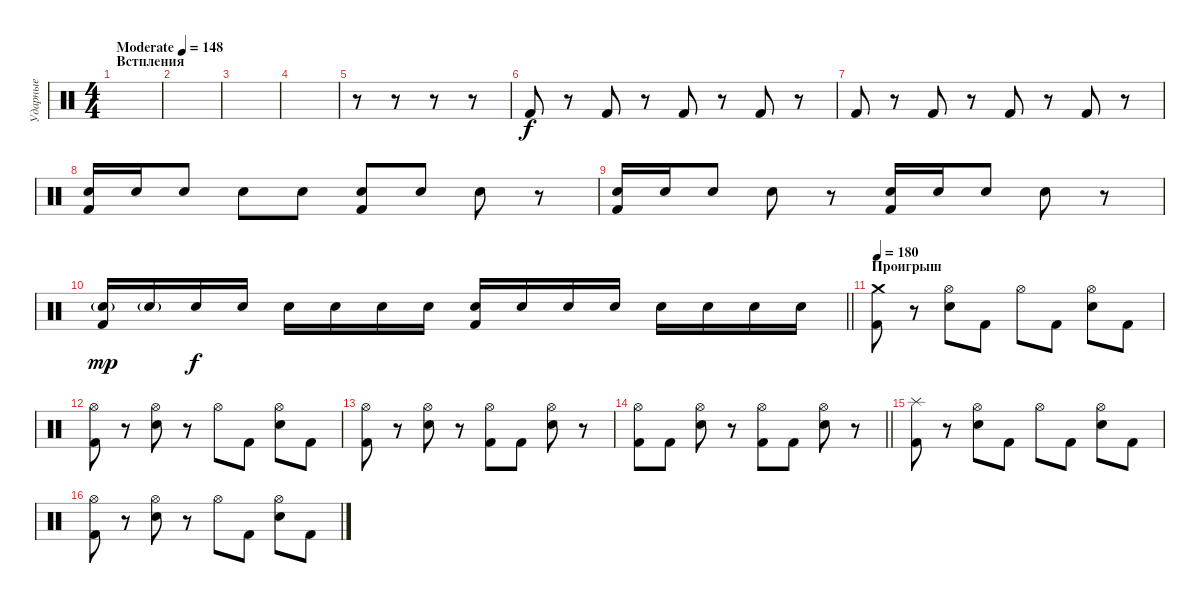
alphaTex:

\track ("Ударные" "Ударные") {instrument percussion}
\staff {score}
\articulation defaults
\ts (4 4)
\section ("" "Встпления")
\tempo (148 "Moderate")
\clef neutral
\ks c
|
|
|
|
r.8 r.8 r.8 r.8 |
"Kick (hit) 2".8 r.8 "Kick (hit) 2".8 r.8 "Kick (hit) 2".8 r.8 "Kick (hit) 2".8 r.8 |
"Kick (hit) 2".8 r.8 "Kick (hit) 2".8 r.8 "Kick (hit) 2".8 r.8 "Kick (hit) 2".8 r.8 |
("Snare (hit) 2" "Kick (hit) 2").16 "Snare (hit) 2".16 "Snare (hit) 2".8 "Snare (hit) 2".8 "Snare (hit) 2".8 ("Snare (hit) 2" "Kick (hit) 2").8 "Snare (hit) 2".8 "Snare (hit) 2".8 r.8 |
("Snare (hit) 2" "Kick (hit) 2").16 "Snare (hit) 2".16 "Snare (hit) 2".8 "Snare (hit) 2".8 r.8 ("Snare (hit) 2" "Kick (hit) 2").16 "Snare (hit) 2".16 "Snare (hit) 2".8 "Snare (hit) 2".8 r.8 |
\barLineRight lightlight
("Snare (hit) 2"{g} "Kick (hit) 2").16{dy mp} "Snare (hit) 2"{g}.16 "Snare (hit) 2".16{dy f} "Snare (hit) 2".16 "Snare (hit) 2".16 "Snare (hit) 2".16 "Snare (hit) 2".16 "Snare (hit) 2".16 ("Snare (hit) 2" "Kick (hit) 2").16 "Snare (hit) 2".16 "Snare (hit) 2".16 "Snare (hit) 2".16 "Snare (hit) 2".16 "Snare (hit) 2".16 "Snare (hit) 2".16 "Snare (hit) 2".16 |
\section ("" "Проигрыш ")
\tempo 180
("Crash medium (hit)" "Kick (hit) 2").8 r.8 ("Hi-Hat (open)" "Snare (hit) 2").8 "Kick (hit) 2".8 "Hi-Hat (open)".8 "Kick (hit) 2".8 ("Hi-Hat (open)" "Snare (hit) 2").8 "Kick (hit) 2".8 |
("Hi-Hat (open)" "Kick (hit) 2").8 r.8 ("Hi-Hat (open)" "Snare (hit) 2").8 r.8 "Hi-Hat (open)".8 "Kick (hit) 2".8 ("Hi-Hat (open)" "Snare (hit) 2").8 "Kick (hit) 2".8 |
("Hi-Hat (open)" "Kick (hit) 2").8 r.8 ("Hi-Hat (open)" "Snare (hit) 2").8 r.8 ("Hi-Hat (open)" "Kick (hit) 2").8 "Kick (hit) 2".8 ("Hi-Hat (open)" "Snare (hit) 2").8 r.8 |
\barLineRight lightlight
("Hi-Hat (open)" "Kick (hit) 2").8 "Kick (hit) 2".8 ("Hi-Hat (open)" "Snare (hit) 2").8 r.8 ("Hi-Hat (open)" "Kick (hit) 2").8 "Kick (hit) 2".8 ("Hi-Hat (open)" "Snare (hit) 2").8 r.8 |
("Splash (hit)" "Kick (hit) 2").8 r.8 ("Hi-Hat (open)" "Snare (hit) 2").8 "Kick (hit) 2".8 "Hi-Hat (open)".8 "Kick (hit) 2".8 ("Hi-Hat (open)" "Snare (hit) 2").8 "Kick (hit) 2".8 |
("Hi-Hat (open)" "Kick (hit) 2").8 r.8 ("Hi-Hat (open)" "Snare (hit) 2").8 r.8 "Hi-Hat (open)".8 "Kick (hit) 2".8 ("Hi-Hat (open)" "Snare (hit) 2").8 "Kick (hit) 2".8
